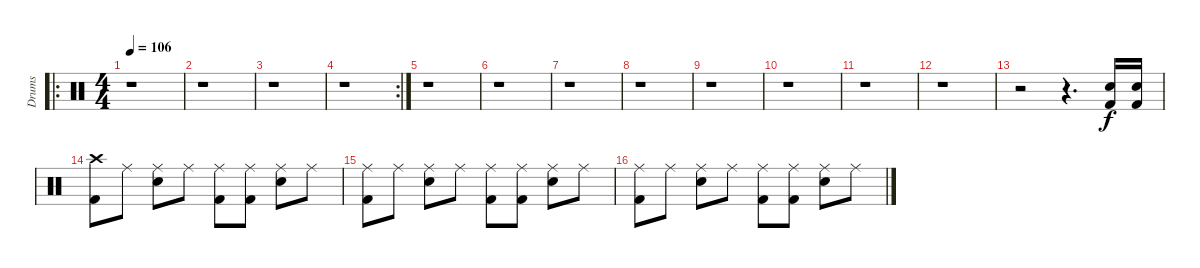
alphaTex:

\track ("Drums" "Drums") {instrument percussion}
\staff {score}
\articulation defaults
\ro
\ts (4 4)
\tempo 106
\clef neutral
\ks c
r.1{dy f} |
r.1 |
r.1 |
\rc 2
r.1 |
r.1 |
r.1 |
r.1 |
r.1 |
r.1 |
r.1 |
r.1 |
r.1 |
r.2 r.4{d} ("Snare (hit) 2" "Kick (hit) 2").16 ("Snare (hit) 2" "Kick (hit) 2").16 |
("Crash high (hit)" "Kick (hit) 2").8 "Ride (middle)".8 ("Ride (middle)" "Snare (hit) 2").8 "Ride (middle)".8 ("Ride (middle)" "Kick (hit) 2").8 ("Ride (middle)" "Kick (hit) 2").8 ("Ride (middle)" "Snare (hit) 2").8 "Ride (middle)".8 |
("Ride (middle)" "Kick (hit) 2").8 "Ride (middle)".8 ("Ride (middle)" "Snare (hit) 2").8 "Ride (middle)".8 ("Ride (middle)" "Kick (hit) 2").8 ("Ride (middle)" "Kick (hit) 2").8 ("Ride (middle)" "Snare (hit) 2").8 "Ride (middle)".8 |
("Ride (middle)" "Kick (hit) 2").8 "Ride (middle)".8 ("Ride (middle)" "Snare (hit) 2").8 "Ride (middle)".8 ("Ride (middle)" "Kick (hit) 2").8 ("Ride (middle)" "Kick (hit) 2").8 ("Ride (middle)" "Snare (hit) 2").8 "Ride (middle)".8
